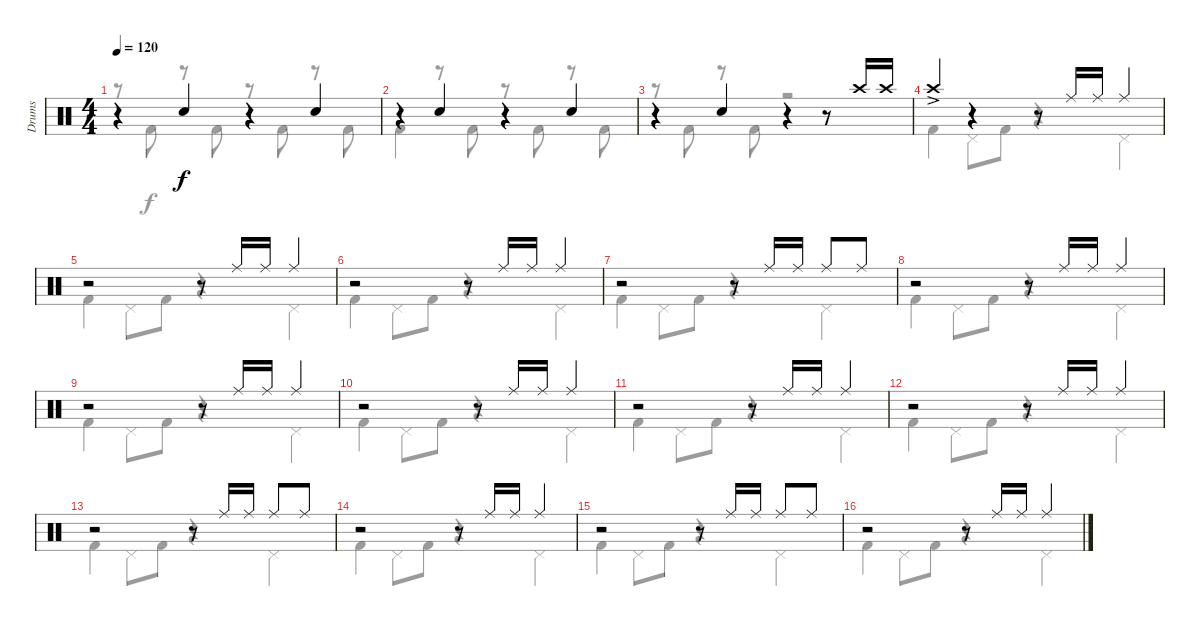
\track ("Drums" "Drums") {instrument percussion}
\staff {score}
\articulation defaults
\voice
\ts (4 4)
\tempo 120
\clef neutral
\ks c
r.4{dy f} "Electric Snare (hit)".4 r.4 "Electric Snare (hit)".4 |
r.4 "Electric Snare (hit)".4 r.4 "Electric Snare (hit)".4 |
r.4 "Electric Snare (hit)".4 r.4 r.8 "Crash high (hit)".16 "Crash high (hit)".16 |
"Crash high (hit)"{ac}.4 r.4 r.8 "Ride (middle)".16 "Ride (middle)".16 "Ride (middle)".4 |
r.2 r.8 "Ride (middle)".16 "Ride (middle)".16 "Ride (middle)".4 |
r.2 r.8 "Ride (middle)".16 "Ride (middle)".16 "Ride (middle)".4 |
r.2 r.8 "Ride (middle)".16 "Ride (middle)".16 "Ride (middle)".8 "Ride (middle)".8 |
r.2 r.8 "Ride (middle)".16 "Ride (middle)".16 "Ride (middle)".4 |
r.2 r.8 "Ride (middle)".16 "Ride (middle)".16 "Ride (middle)".4 |
r.2 r.8 "Ride (middle)".16 "Ride (middle)".16 "Ride (middle)".4 |
r.2 r.8 "Ride (middle)".16 "Ride (middle)".16 "Ride (middle)".4 |
r.2 r.8 "Ride (middle)".16 "Ride (middle)".16 "Ride (middle)".4 |
r.2 r.8 "Ride (middle)".16 "Ride (middle)".16 "Ride (middle)".8 "Ride (middle)".8 |
r.2 r.8 "Ride (middle)".16 "Ride (middle)".16 "Ride (middle)".4 |
r.2 r.8 "Ride (middle)".16 "Ride (middle)".16 "Ride (middle)".8 "Ride (middle)".8 |
r.2 r.8 "Ride (middle)".16 "Ride (middle)".16 "Ride (middle)".4
\voice
\clef neutral
\ottava regular
\simile none
\ks c
r.8{dy f} "Kick (hit) 2".8 r.8 "Kick (hit) 2".8 r.8 "Kick (hit) 2".8 r.8 "Kick (hit) 2".8 |
"Kick (hit) 2".4 r.8 "Kick (hit) 2".8 r.8 "Kick (hit) 2".8 r.8 "Kick (hit) 2".8 |
r.8 "Kick (hit) 2".8 r.8 "Kick (hit) 2".8 r.2 |
"Kick (hit) 2".4 "Pedal Hi-Hat (hit)".8 "Kick (hit) 2".8 r.4 "Pedal Hi-Hat (hit)".4 |
"Kick (hit) 2".4 "Pedal Hi-Hat (hit)".8 "Kick (hit) 2".8 r.4 "Pedal Hi-Hat (hit)".4 |
"Kick (hit) 2".4 "Pedal Hi-Hat (hit)".8 "Kick (hit) 2".8 r.4 "Pedal Hi-Hat (hit)".4 |
"Kick (hit) 2".4 "Pedal Hi-Hat (hit)".8 "Kick (hit) 2".8 r.4 "Pedal Hi-Hat (hit)".4 |
"Kick (hit) 2".4 "Pedal Hi-Hat (hit)".8 "Kick (hit) 2".8 r.4 "Pedal Hi-Hat (hit)".4 |
"Kick (hit) 2".4 "Pedal Hi-Hat (hit)".8 "Kick (hit) 2".8 r.4 "Pedal Hi-Hat (hit)".4 |
"Kick (hit) 2".4 "Pedal Hi-Hat (hit)".8 "Kick (hit) 2".8 r.4 "Pedal Hi-Hat (hit)".4 |
"Kick (hit) 2".4 "Pedal Hi-Hat (hit)".8 "Kick (hit) 2".8 r.4 "Pedal Hi-Hat (hit)".4 |
"Kick (hit) 2".4 "Pedal Hi-Hat (hit)".8 "Kick (hit) 2".8 r.4 "Pedal Hi-Hat (hit)".4 |
"Kick (hit) 2".4 "Pedal Hi-Hat (hit)".8 "Kick (hit) 2".8 r.4 "Pedal Hi-Hat (hit)".4 |
"Kick (hit) 2".4 "Pedal Hi-Hat (hit)".8 "Kick (hit) 2".8 r.4 "Pedal Hi-Hat (hit)".4 |
"Kick (hit) 2".4 "Pedal Hi-Hat (hit)".8 "Kick (hit) 2".8 r.4 "Pedal Hi-Hat (hit)".4 |
"Kick (hit) 2".4 "Pedal Hi-Hat (hit)".8 "Kick (hit) 2".8 r.4 "Pedal Hi-Hat (hit)".4
